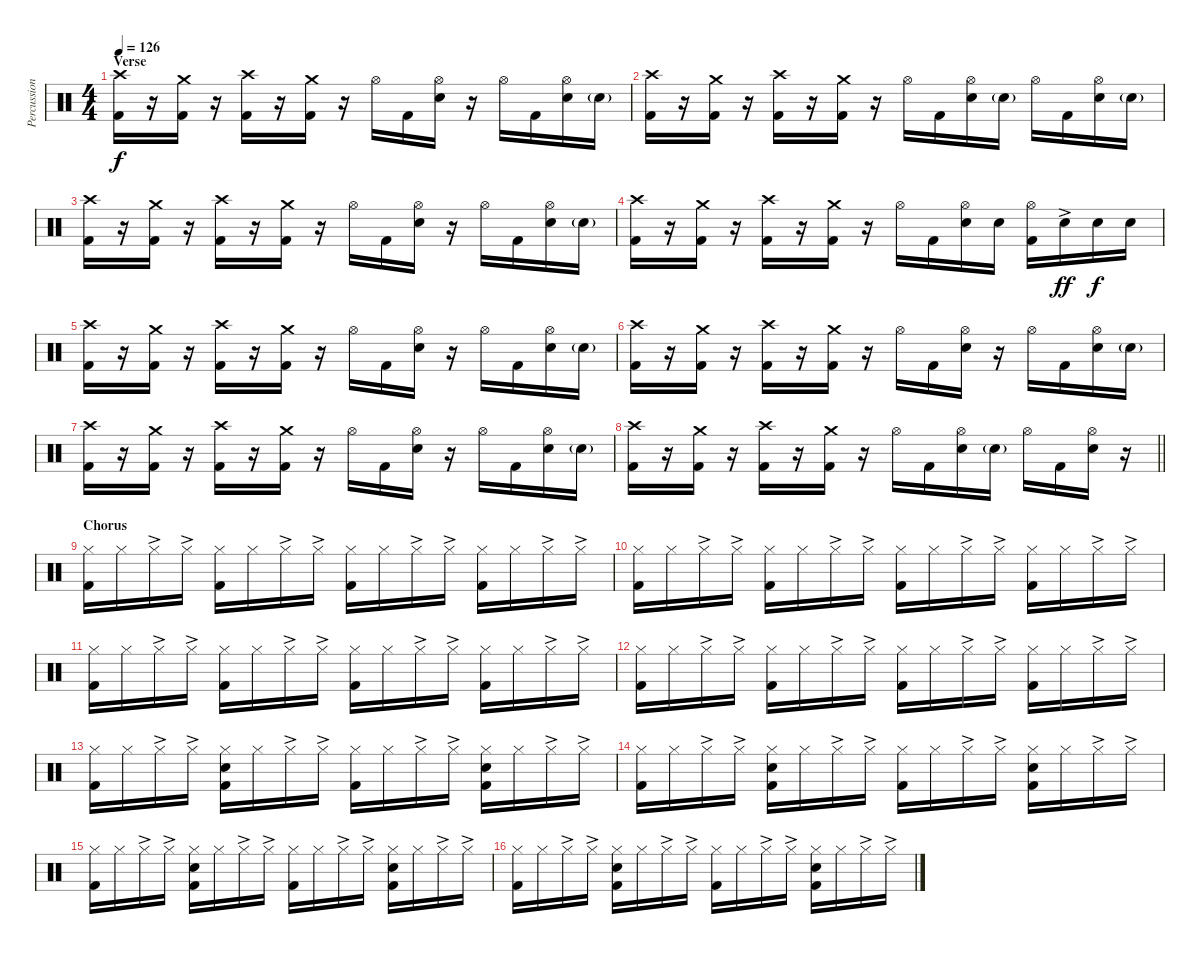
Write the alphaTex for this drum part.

\track ("Percussion" "Percussion") {instrument percussion}
\staff {score}
\articulation defaults
\ts (4 4)
\section ("" "Verse")
\tempo 126
\clef neutral
\ks c
("Crash high (hit)" "Kick (hit) 2").16{dy f} r.16 ("Crash medium (hit)" "Kick (hit) 2").16 r.16 ("Crash high (hit)" "Kick (hit) 2").16 r.16 ("Crash medium (hit)" "Kick (hit) 2").16 r.16 "Hi-Hat (open)".16 "Kick (hit) 2".16 ("Hi-Hat (open)" "Electric Snare (hit)").16 r.16 "Hi-Hat (open)".16 "Kick (hit) 2".16 ("Hi-Hat (open)" "Electric Snare (hit)").16 "Electric Snare (hit)"{g}.16 |
("Crash high (hit)" "Kick (hit) 2").16 r.16 ("Crash medium (hit)" "Kick (hit) 2").16 r.16 ("Crash high (hit)" "Kick (hit) 2").16 r.16 ("Crash medium (hit)" "Kick (hit) 2").16 r.16 "Hi-Hat (open)".16 "Kick (hit) 2".16 ("Hi-Hat (open)" "Electric Snare (hit)").16 "Electric Snare (hit)"{g}.16 "Hi-Hat (open)".16 "Kick (hit) 2".16 ("Hi-Hat (open)" "Electric Snare (hit)").16 "Electric Snare (hit)"{g}.16 |
("Crash high (hit)" "Kick (hit) 2").16 r.16 ("Crash medium (hit)" "Kick (hit) 2").16 r.16 ("Crash high (hit)" "Kick (hit) 2").16 r.16 ("Crash medium (hit)" "Kick (hit) 2").16 r.16 "Hi-Hat (open)".16 "Kick (hit) 2".16 ("Hi-Hat (open)" "Electric Snare (hit)").16 r.16 "Hi-Hat (open)".16 "Kick (hit) 2".16 ("Hi-Hat (open)" "Electric Snare (hit)").16 "Electric Snare (hit)"{g}.16 |
("Crash high (hit)" "Kick (hit) 2").16 r.16 ("Crash medium (hit)" "Kick (hit) 2").16 r.16 ("Crash high (hit)" "Kick (hit) 2").16 r.16 ("Crash medium (hit)" "Kick (hit) 2").16 r.16 "Hi-Hat (open)".16 "Kick (hit) 2".16 ("Hi-Hat (open)" "Electric Snare (hit)").16 "Electric Snare (hit)".16 ("Hi-Hat (open)" "Kick (hit) 2").16 "Electric Snare (hit)"{ac}.16{dy ff} "Electric Snare (hit)".16{dy f} "Electric Snare (hit)".16 |
("Crash high (hit)" "Kick (hit) 2").16 r.16 ("Crash medium (hit)" "Kick (hit) 2").16 r.16 ("Crash high (hit)" "Kick (hit) 2").16 r.16 ("Crash medium (hit)" "Kick (hit) 2").16 r.16 "Hi-Hat (open)".16 "Kick (hit) 2".16 ("Hi-Hat (open)" "Electric Snare (hit)").16 r.16 "Hi-Hat (open)".16 "Kick (hit) 2".16 ("Hi-Hat (open)" "Electric Snare (hit)").16 "Electric Snare (hit)"{g}.16 |
("Crash high (hit)" "Kick (hit) 2").16 r.16 ("Crash medium (hit)" "Kick (hit) 2").16 r.16 ("Crash high (hit)" "Kick (hit) 2").16 r.16 ("Crash medium (hit)" "Kick (hit) 2").16 r.16 "Hi-Hat (open)".16 "Kick (hit) 2".16 ("Hi-Hat (open)" "Electric Snare (hit)").16 r.16 "Hi-Hat (open)".16 "Kick (hit) 2".16 ("Hi-Hat (open)" "Electric Snare (hit)").16 "Electric Snare (hit)"{g}.16 |
("Crash high (hit)" "Kick (hit) 2").16 r.16 ("Crash medium (hit)" "Kick (hit) 2").16 r.16 ("Crash high (hit)" "Kick (hit) 2").16 r.16 ("Crash medium (hit)" "Kick (hit) 2").16 r.16 "Hi-Hat (open)".16 "Kick (hit) 2".16 ("Hi-Hat (open)" "Electric Snare (hit)").16 r.16 "Hi-Hat (open)".16 "Kick (hit) 2".16 ("Hi-Hat (open)" "Electric Snare (hit)").16 "Electric Snare (hit)"{g}.16 |
\barLineRight lightlight
("Crash high (hit)" "Kick (hit) 2").16 r.16 ("Crash medium (hit)" "Kick (hit) 2").16 r.16 ("Crash high (hit)" "Kick (hit) 2").16 r.16 ("Crash medium (hit)" "Kick (hit) 2").16 r.16 "Hi-Hat (open)".16 "Kick (hit) 2".16 ("Hi-Hat (open)" "Electric Snare (hit)").16 "Electric Snare (hit)"{g}.16 "Hi-Hat (open)".16 "Kick (hit) 2".16 ("Hi-Hat (open)" "Electric Snare (hit)").16 r.16 |
\section ("" "Chorus")
("Hi-Hat (closed)" "Kick (hit) 2").16 "Hi-Hat (closed)".16 "Hi-Hat (closed)"{ac}.16 "Hi-Hat (closed)"{ac}.16 ("Hi-Hat (closed)" "Kick (hit) 2").16 "Hi-Hat (closed)".16 "Hi-Hat (closed)"{ac}.16 "Hi-Hat (closed)"{ac}.16 ("Hi-Hat (closed)" "Kick (hit) 2").16 "Hi-Hat (closed)".16 "Hi-Hat (closed)"{ac}.16 "Hi-Hat (closed)"{ac}.16 ("Hi-Hat (closed)" "Kick (hit) 2").16 "Hi-Hat (closed)".16 "Hi-Hat (closed)"{ac}.16 "Hi-Hat (closed)"{ac}.16 |
("Hi-Hat (closed)" "Kick (hit) 2").16 "Hi-Hat (closed)".16 "Hi-Hat (closed)"{ac}.16 "Hi-Hat (closed)"{ac}.16 ("Hi-Hat (closed)" "Kick (hit) 2").16 "Hi-Hat (closed)".16 "Hi-Hat (closed)"{ac}.16 "Hi-Hat (closed)"{ac}.16 ("Hi-Hat (closed)" "Kick (hit) 2").16 "Hi-Hat (closed)".16 "Hi-Hat (closed)"{ac}.16 "Hi-Hat (closed)"{ac}.16 ("Hi-Hat (closed)" "Kick (hit) 2").16 "Hi-Hat (closed)".16 "Hi-Hat (closed)"{ac}.16 "Hi-Hat (closed)"{ac}.16 |
("Hi-Hat (closed)" "Kick (hit) 2").16 "Hi-Hat (closed)".16 "Hi-Hat (closed)"{ac}.16 "Hi-Hat (closed)"{ac}.16 ("Hi-Hat (closed)" "Kick (hit) 2").16 "Hi-Hat (closed)".16 "Hi-Hat (closed)"{ac}.16 "Hi-Hat (closed)"{ac}.16 ("Hi-Hat (closed)" "Kick (hit) 2").16 "Hi-Hat (closed)".16 "Hi-Hat (closed)"{ac}.16 "Hi-Hat (closed)"{ac}.16 ("Hi-Hat (closed)" "Kick (hit) 2").16 "Hi-Hat (closed)".16 "Hi-Hat (closed)"{ac}.16 "Hi-Hat (closed)"{ac}.16 |
("Hi-Hat (closed)" "Kick (hit) 2").16 "Hi-Hat (closed)".16 "Hi-Hat (closed)"{ac}.16 "Hi-Hat (closed)"{ac}.16 ("Hi-Hat (closed)" "Kick (hit) 2").16 "Hi-Hat (closed)".16 "Hi-Hat (closed)"{ac}.16 "Hi-Hat (closed)"{ac}.16 ("Hi-Hat (closed)" "Kick (hit) 2").16 "Hi-Hat (closed)".16 "Hi-Hat (closed)"{ac}.16 "Hi-Hat (closed)"{ac}.16 ("Hi-Hat (closed)" "Kick (hit) 2").16 "Hi-Hat (closed)".16 "Hi-Hat (closed)"{ac}.16 "Hi-Hat (closed)"{ac}.16 |
("Hi-Hat (closed)" "Kick (hit) 2").16 "Hi-Hat (closed)".16 "Hi-Hat (closed)"{ac}.16 "Hi-Hat (closed)"{ac}.16 ("Hi-Hat (closed)" "Electric Snare (hit)" "Kick (hit) 2").16 "Hi-Hat (closed)".16 "Hi-Hat (closed)"{ac}.16 "Hi-Hat (closed)"{ac}.16 ("Hi-Hat (closed)" "Kick (hit) 2").16 "Hi-Hat (closed)".16 "Hi-Hat (closed)"{ac}.16 "Hi-Hat (closed)"{ac}.16 ("Hi-Hat (closed)" "Electric Snare (hit)" "Kick (hit) 2").16 "Hi-Hat (closed)".16 "Hi-Hat (closed)"{ac}.16 "Hi-Hat (closed)"{ac}.16 |
("Hi-Hat (closed)" "Kick (hit) 2").16 "Hi-Hat (closed)".16 "Hi-Hat (closed)"{ac}.16 "Hi-Hat (closed)"{ac}.16 ("Hi-Hat (closed)" "Electric Snare (hit)" "Kick (hit) 2").16 "Hi-Hat (closed)".16 "Hi-Hat (closed)"{ac}.16 "Hi-Hat (closed)"{ac}.16 ("Hi-Hat (closed)" "Kick (hit) 2").16 "Hi-Hat (closed)".16 "Hi-Hat (closed)"{ac}.16 "Hi-Hat (closed)"{ac}.16 ("Hi-Hat (closed)" "Electric Snare (hit)" "Kick (hit) 2").16 "Hi-Hat (closed)".16 "Hi-Hat (closed)"{ac}.16 "Hi-Hat (closed)"{ac}.16 |
("Hi-Hat (closed)" "Kick (hit) 2").16 "Hi-Hat (closed)".16 "Hi-Hat (closed)"{ac}.16 "Hi-Hat (closed)"{ac}.16 ("Hi-Hat (closed)" "Electric Snare (hit)" "Kick (hit) 2").16 "Hi-Hat (closed)".16 "Hi-Hat (closed)"{ac}.16 "Hi-Hat (closed)"{ac}.16 ("Hi-Hat (closed)" "Kick (hit) 2").16 "Hi-Hat (closed)".16 "Hi-Hat (closed)"{ac}.16 "Hi-Hat (closed)"{ac}.16 ("Hi-Hat (closed)" "Electric Snare (hit)" "Kick (hit) 2").16 "Hi-Hat (closed)".16 "Hi-Hat (closed)"{ac}.16 "Hi-Hat (closed)"{ac}.16 |
("Hi-Hat (closed)" "Kick (hit) 2").16 "Hi-Hat (closed)".16 "Hi-Hat (closed)"{ac}.16 "Hi-Hat (closed)"{ac}.16 ("Hi-Hat (closed)" "Electric Snare (hit)" "Kick (hit) 2").16 "Hi-Hat (closed)".16 "Hi-Hat (closed)"{ac}.16 "Hi-Hat (closed)"{ac}.16 ("Hi-Hat (closed)" "Kick (hit) 2").16 "Hi-Hat (closed)".16 "Hi-Hat (closed)"{ac}.16 "Hi-Hat (closed)"{ac}.16 ("Hi-Hat (closed)" "Electric Snare (hit)" "Kick (hit) 2").16 "Hi-Hat (closed)".16 "Hi-Hat (closed)"{ac}.16 "Hi-Hat (closed)"{ac}.16
